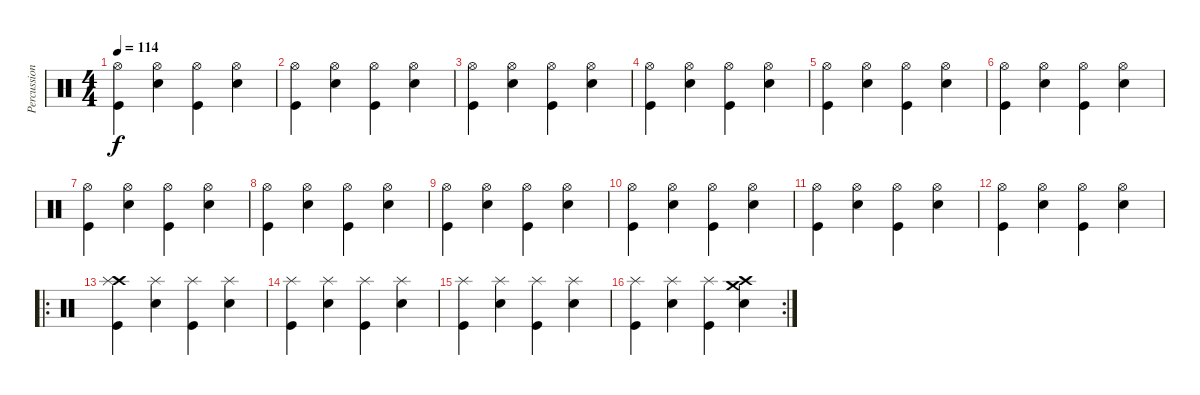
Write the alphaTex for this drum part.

\track ("Percussion" "Percussion") {solo instrument percussion}
\staff {score}
\articulation defaults
\ts (4 4)
\tempo 114
\clef neutral
\ks c
("Hi-Hat (open)" "Kick (hit)").4{dy f} ("Hi-Hat (open)" "Electric Snare (hit)").4 ("Hi-Hat (open)" "Kick (hit)").4 ("Hi-Hat (open)" "Electric Snare (hit)").4 |
("Hi-Hat (open)" "Kick (hit)").4 ("Hi-Hat (open)" "Electric Snare (hit)").4 ("Hi-Hat (open)" "Kick (hit)").4 ("Hi-Hat (open)" "Electric Snare (hit)").4 |
("Hi-Hat (open)" "Kick (hit)").4 ("Hi-Hat (open)" "Electric Snare (hit)").4 ("Hi-Hat (open)" "Kick (hit)").4 ("Hi-Hat (open)" "Electric Snare (hit)").4 |
("Hi-Hat (open)" "Kick (hit)").4 ("Hi-Hat (open)" "Electric Snare (hit)").4 ("Hi-Hat (open)" "Kick (hit)").4 ("Hi-Hat (open)" "Electric Snare (hit)").4 |
("Hi-Hat (open)" "Kick (hit)").4 ("Hi-Hat (open)" "Electric Snare (hit)").4 ("Hi-Hat (open)" "Kick (hit)").4 ("Hi-Hat (open)" "Electric Snare (hit)").4 |
("Hi-Hat (open)" "Kick (hit)").4 ("Hi-Hat (open)" "Electric Snare (hit)").4 ("Hi-Hat (open)" "Kick (hit)").4 ("Hi-Hat (open)" "Electric Snare (hit)").4 |
("Hi-Hat (open)" "Kick (hit)").4 ("Hi-Hat (open)" "Electric Snare (hit)").4 ("Hi-Hat (open)" "Kick (hit)").4 ("Hi-Hat (open)" "Electric Snare (hit)").4 |
("Hi-Hat (open)" "Kick (hit)").4 ("Hi-Hat (open)" "Electric Snare (hit)").4 ("Hi-Hat (open)" "Kick (hit)").4 ("Hi-Hat (open)" "Electric Snare (hit)").4 |
("Hi-Hat (open)" "Kick (hit)").4 ("Hi-Hat (open)" "Electric Snare (hit)").4 ("Hi-Hat (open)" "Kick (hit)").4 ("Hi-Hat (open)" "Electric Snare (hit)").4 |
("Hi-Hat (open)" "Kick (hit)").4 ("Hi-Hat (open)" "Electric Snare (hit)").4 ("Hi-Hat (open)" "Kick (hit)").4 ("Hi-Hat (open)" "Electric Snare (hit)").4 |
("Hi-Hat (open)" "Kick (hit)").4 ("Hi-Hat (open)" "Electric Snare (hit)").4 ("Hi-Hat (open)" "Kick (hit)").4 ("Hi-Hat (open)" "Electric Snare (hit)").4 |
("Hi-Hat (open)" "Kick (hit)").4 ("Hi-Hat (open)" "Electric Snare (hit)").4 ("Hi-Hat (open)" "Kick (hit)").4 ("Hi-Hat (open)" "Electric Snare (hit)").4 |
\ro
("Crash high (hit)" "Splash (hit)" "Kick (hit)").4 ("Splash (hit)" "Electric Snare (hit)").4 ("Splash (hit)" "Kick (hit)").4 ("Splash (hit)" "Electric Snare (hit)").4 |
("Splash (hit)" "Kick (hit)").4 ("Splash (hit)" "Electric Snare (hit)").4 ("Splash (hit)" "Kick (hit)").4 ("Splash (hit)" "Electric Snare (hit)").4 |
("Splash (hit)" "Kick (hit)").4 ("Splash (hit)" "Electric Snare (hit)").4 ("Splash (hit)" "Kick (hit)").4 ("Splash (hit)" "Electric Snare (hit)").4 |
\rc 2
("Splash (hit)" "Kick (hit)").4 ("Splash (hit)" "Electric Snare (hit)").4 ("Splash (hit)" "Kick (hit)").4 ("Crash medium (hit)" "Crash high (hit)" "Electric Snare (hit)").4
